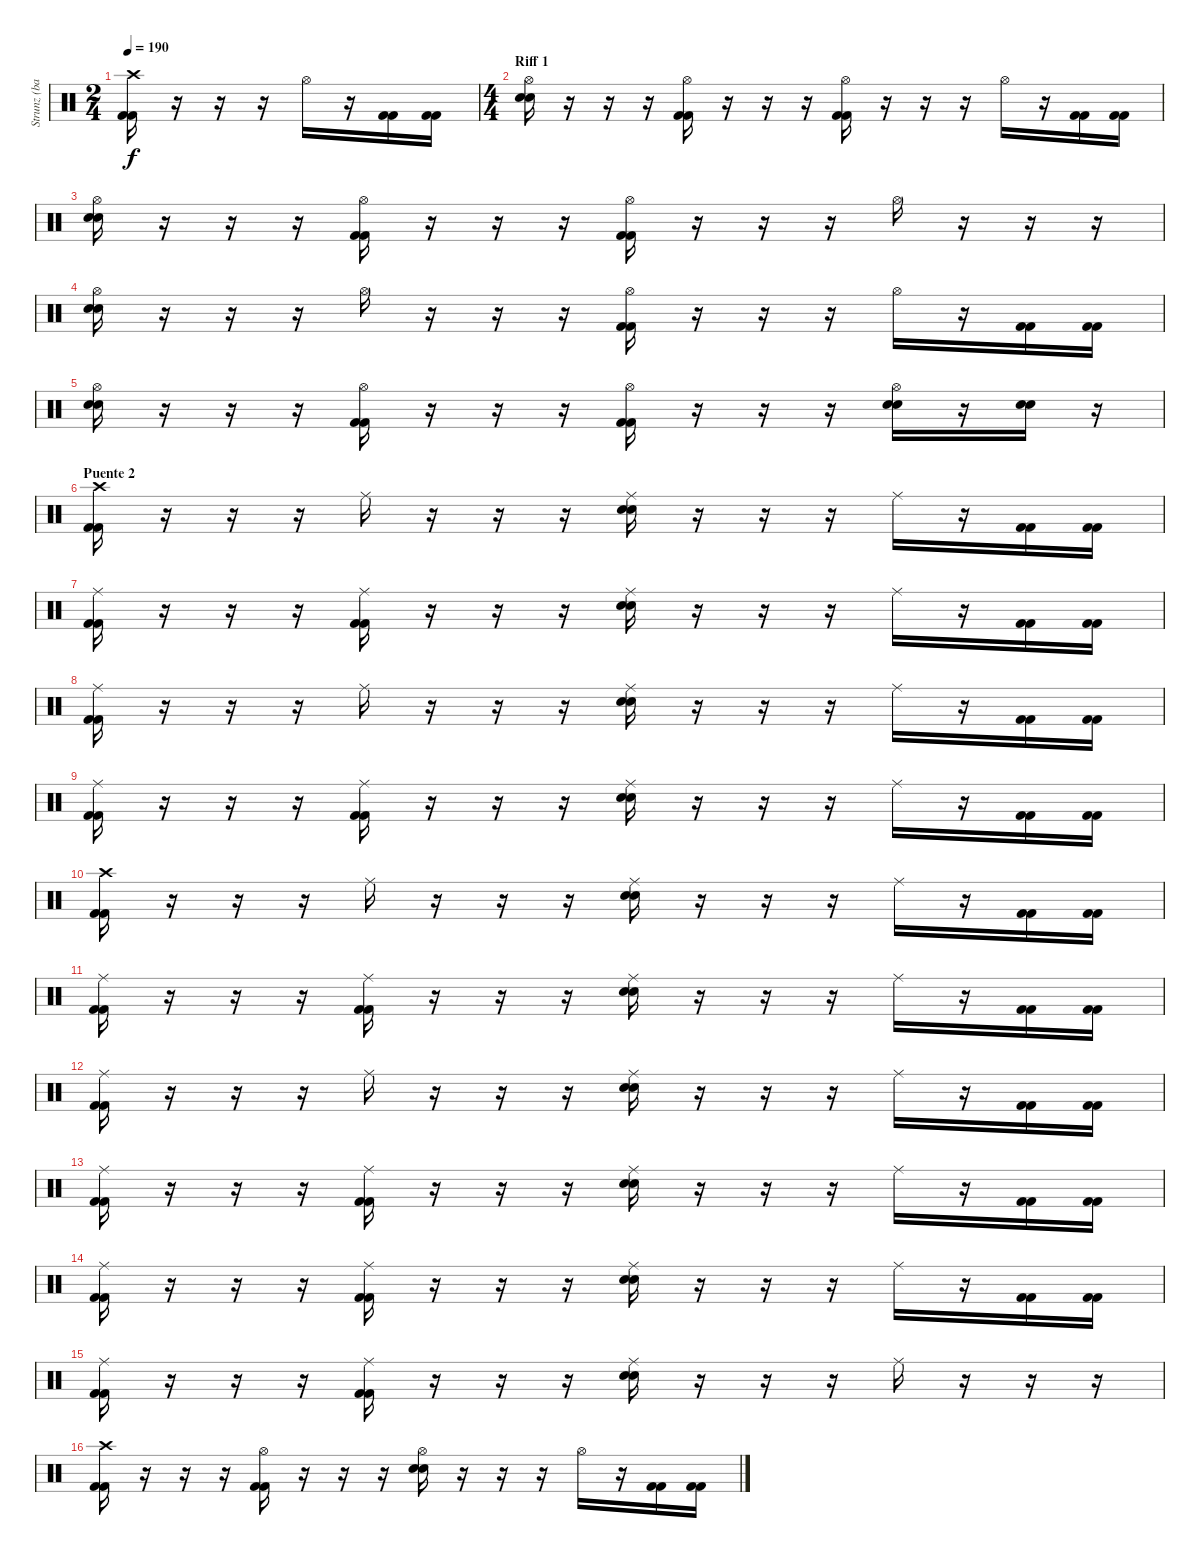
\track ("Strunz (bateria)" "Strunz (ba") {instrument percussion}
\staff {score}
\articulation defaults
\ts (2 4)
\tempo 190
\clef neutral
\ks c
("Crash high (hit)" "Kick (hit) 2" "Kick (hit) 2").16{dy f} r.16 r.16 r.16 "Hi-Hat (open)".16 r.16 ("Kick (hit) 2" "Kick (hit) 2").16 ("Kick (hit) 2" "Kick (hit) 2").16 |
\ts (4 4)
\section ("" "Riff 1")
("Hi-Hat (open)" "Snare (hit) 2" "Snare (hit) 2").16 r.16 r.16 r.16 ("Hi-Hat (open)" "Kick (hit) 2" "Kick (hit) 2").16 r.16 r.16 r.16 ("Hi-Hat (open)" "Kick (hit) 2" "Kick (hit) 2").16 r.16 r.16 r.16 "Hi-Hat (open)".16 r.16 ("Kick (hit) 2" "Kick (hit) 2").16 ("Kick (hit) 2" "Kick (hit) 2").16 |
("Hi-Hat (open)" "Snare (hit) 2" "Snare (hit) 2").16 r.16 r.16 r.16 ("Hi-Hat (open)" "Kick (hit) 2" "Kick (hit) 2").16 r.16 r.16 r.16 ("Hi-Hat (open)" "Kick (hit) 2" "Kick (hit) 2").16 r.16 r.16 r.16 "Hi-Hat (open)".16 r.16 r.16 r.16 |
("Hi-Hat (open)" "Snare (hit) 2" "Snare (hit) 2").16 r.16 r.16 r.16 "Hi-Hat (open)".16 r.16 r.16 r.16 ("Hi-Hat (open)" "Kick (hit) 2" "Kick (hit) 2").16 r.16 r.16 r.16 "Hi-Hat (open)".16 r.16 ("Kick (hit) 2" "Kick (hit) 2").16 ("Kick (hit) 2" "Kick (hit) 2").16 |
("Hi-Hat (open)" "Snare (hit) 2" "Snare (hit) 2").16 r.16 r.16 r.16 ("Hi-Hat (open)" "Kick (hit) 2" "Kick (hit) 2").16 r.16 r.16 r.16 ("Hi-Hat (open)" "Kick (hit) 2" "Kick (hit) 2").16 r.16 r.16 r.16 ("Hi-Hat (open)" "Snare (hit) 2" "Snare (hit) 2").16 r.16 ("Snare (hit) 2" "Snare (hit) 2").16 r.16 |
\section ("" "Puente 2")
("Crash high (hit)" "Kick (hit) 2" "Kick (hit) 2").16 r.16 r.16 r.16 "Ride (middle)".16 r.16 r.16 r.16 ("Ride (middle)" "Snare (hit) 2" "Snare (hit) 2").16 r.16 r.16 r.16 "Ride (middle)".16 r.16 ("Kick (hit) 2" "Kick (hit) 2").16 ("Kick (hit) 2" "Kick (hit) 2").16 |
("Ride (middle)" "Kick (hit) 2" "Kick (hit) 2").16 r.16 r.16 r.16 ("Ride (middle)" "Kick (hit) 2" "Kick (hit) 2").16 r.16 r.16 r.16 ("Ride (middle)" "Snare (hit) 2" "Snare (hit) 2").16 r.16 r.16 r.16 "Ride (middle)".16 r.16 ("Kick (hit) 2" "Kick (hit) 2").16 ("Kick (hit) 2" "Kick (hit) 2").16 |
("Ride (middle)" "Kick (hit) 2" "Kick (hit) 2").16 r.16 r.16 r.16 "Ride (middle)".16 r.16 r.16 r.16 ("Ride (middle)" "Snare (hit) 2" "Snare (hit) 2").16 r.16 r.16 r.16 "Ride (middle)".16 r.16 ("Kick (hit) 2" "Kick (hit) 2").16 ("Kick (hit) 2" "Kick (hit) 2").16 |
("Ride (middle)" "Kick (hit) 2" "Kick (hit) 2").16 r.16 r.16 r.16 ("Ride (middle)" "Kick (hit) 2" "Kick (hit) 2").16 r.16 r.16 r.16 ("Ride (middle)" "Snare (hit) 2" "Snare (hit) 2").16 r.16 r.16 r.16 "Ride (middle)".16 r.16 ("Kick (hit) 2" "Kick (hit) 2").16 ("Kick (hit) 2" "Kick (hit) 2").16 |
("Crash high (hit)" "Kick (hit) 2" "Kick (hit) 2").16 r.16 r.16 r.16 "Ride (middle)".16 r.16 r.16 r.16 ("Ride (middle)" "Snare (hit) 2" "Snare (hit) 2").16 r.16 r.16 r.16 "Ride (middle)".16 r.16 ("Kick (hit) 2" "Kick (hit) 2").16 ("Kick (hit) 2" "Kick (hit) 2").16 |
("Ride (middle)" "Kick (hit) 2" "Kick (hit) 2").16 r.16 r.16 r.16 ("Ride (middle)" "Kick (hit) 2" "Kick (hit) 2").16 r.16 r.16 r.16 ("Ride (middle)" "Snare (hit) 2" "Snare (hit) 2").16 r.16 r.16 r.16 "Ride (middle)".16 r.16 ("Kick (hit) 2" "Kick (hit) 2").16 ("Kick (hit) 2" "Kick (hit) 2").16 |
("Ride (middle)" "Kick (hit) 2" "Kick (hit) 2").16 r.16 r.16 r.16 "Ride (middle)".16 r.16 r.16 r.16 ("Ride (middle)" "Snare (hit) 2" "Snare (hit) 2").16 r.16 r.16 r.16 "Ride (middle)".16 r.16 ("Kick (hit) 2" "Kick (hit) 2").16 ("Kick (hit) 2" "Kick (hit) 2").16 |
("Ride (middle)" "Kick (hit) 2" "Kick (hit) 2").16 r.16 r.16 r.16 ("Ride (middle)" "Kick (hit) 2" "Kick (hit) 2").16 r.16 r.16 r.16 ("Ride (middle)" "Snare (hit) 2" "Snare (hit) 2").16 r.16 r.16 r.16 "Ride (middle)".16 r.16 ("Kick (hit) 2" "Kick (hit) 2").16 ("Kick (hit) 2" "Kick (hit) 2").16 |
("Ride (middle)" "Kick (hit) 2" "Kick (hit) 2").16 r.16 r.16 r.16 ("Ride (middle)" "Kick (hit) 2" "Kick (hit) 2").16 r.16 r.16 r.16 ("Ride (middle)" "Snare (hit) 2" "Snare (hit) 2").16 r.16 r.16 r.16 "Ride (middle)".16 r.16 ("Kick (hit) 2" "Kick (hit) 2").16 ("Kick (hit) 2" "Kick (hit) 2").16 |
("Ride (middle)" "Kick (hit) 2" "Kick (hit) 2").16 r.16 r.16 r.16 ("Ride (middle)" "Kick (hit) 2" "Kick (hit) 2").16 r.16 r.16 r.16 ("Ride (middle)" "Snare (hit) 2" "Snare (hit) 2").16 r.16 r.16 r.16 "Ride (middle)".16 r.16 r.16 r.16 |
("Crash high (hit)" "Kick (hit) 2" "Kick (hit) 2").16 r.16 r.16 r.16 ("Hi-Hat (open)" "Kick (hit) 2" "Kick (hit) 2").16 r.16 r.16 r.16 ("Hi-Hat (open)" "Snare (hit) 2" "Snare (hit) 2").16 r.16 r.16 r.16 "Hi-Hat (open)".16 r.16 ("Kick (hit) 2" "Kick (hit) 2").16 ("Kick (hit) 2" "Kick (hit) 2").16
